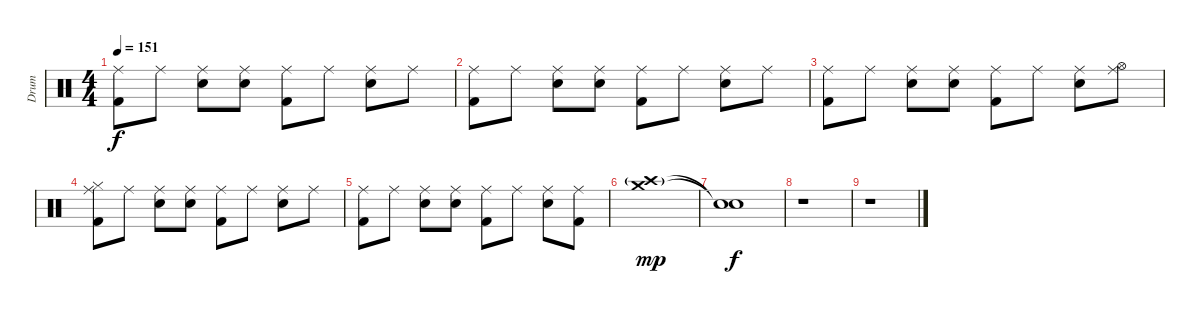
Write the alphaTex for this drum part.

\track ("Drum" "Drum") {instrument percussion}
\staff {score}
\articulation defaults
\ts (4 4)
\tempo 151
\clef neutral
\ks c
("Ride (middle)" "Kick (hit) 2").8{dy f} "Ride (middle)".8 ("Ride (middle)" "Electric Snare (hit)").8 ("Ride (middle)" "Electric Snare (hit)").8 ("Ride (middle)" "Kick (hit) 2").8 "Ride (middle)".8 ("Ride (middle)" "Electric Snare (hit)").8 "Ride (middle)".8 |
("Ride (middle)" "Kick (hit) 2").8 "Ride (middle)".8 ("Ride (middle)" "Electric Snare (hit)").8 ("Ride (middle)" "Electric Snare (hit)").8 ("Ride (middle)" "Kick (hit) 2").8 "Ride (middle)".8 ("Ride (middle)" "Electric Snare (hit)").8 "Ride (middle)".8 |
("Ride (middle)" "Kick (hit) 2").8 "Ride (middle)".8 ("Ride (middle)" "Electric Snare (hit)").8 ("Ride (middle)" "Electric Snare (hit)").8 ("Ride (middle)" "Kick (hit) 2").8 "Ride (middle)".8 ("Ride (middle)" "Electric Snare (hit)").8 ("Ride (middle)" "Hi-Hat (open)").8 |
("Ride (middle)" "Hi-Hat (closed)" "Kick (hit) 2").8 "Ride (middle)".8 ("Ride (middle)" "Electric Snare (hit)").8 ("Ride (middle)" "Electric Snare (hit)").8 ("Ride (middle)" "Kick (hit) 2").8 "Ride (middle)".8 ("Ride (middle)" "Electric Snare (hit)").8 "Ride (middle)".8 |
("Ride (middle)" "Kick (hit) 2").8 "Ride (middle)".8 ("Ride (middle)" "Electric Snare (hit)").8 ("Ride (middle)" "Electric Snare (hit)").8 ("Ride (middle)" "Kick (hit) 2").8 "Ride (middle)".8 ("Ride (middle)" "Electric Snare (hit)").8 ("Ride (middle)" "Kick (hit) 2").8 |
("Crash medium (hit)" "Crash high (hit)"{g}).1{dy mp} |
("Snare (hit)"{t} "Snare (hit)"{t}).1{dy f} |
r.1 |
r.1
